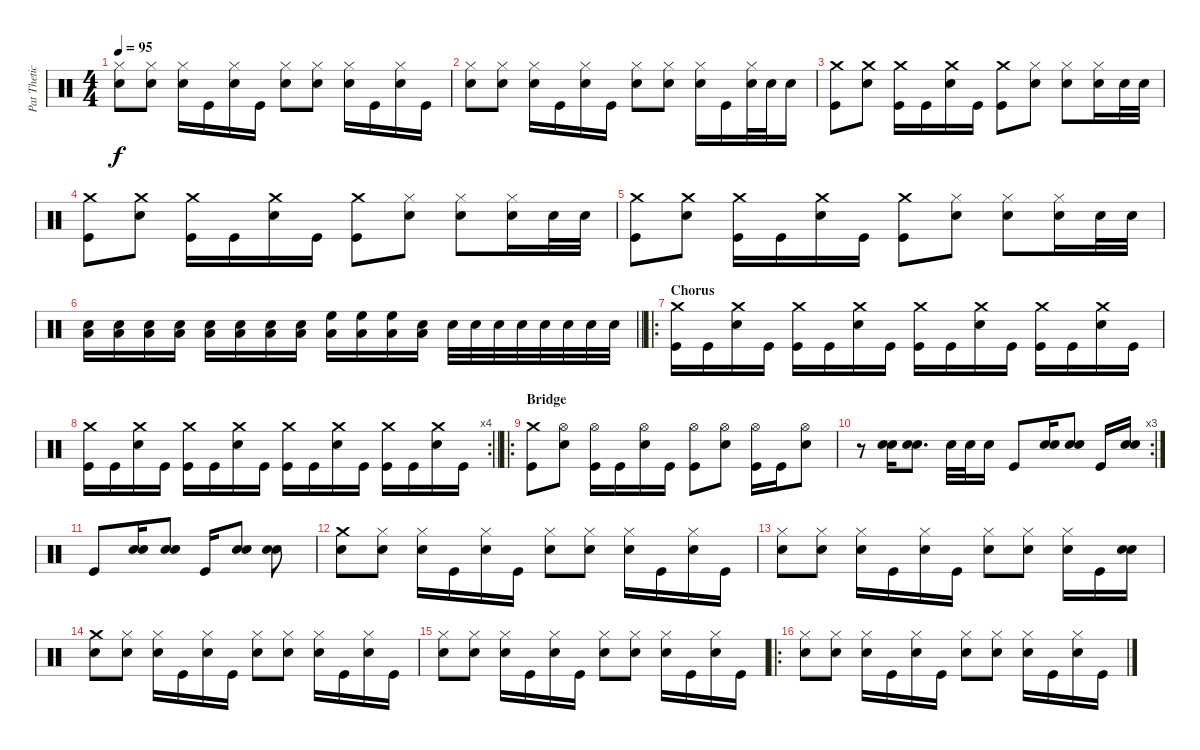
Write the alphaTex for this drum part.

\track ("Pat Thetic" "Pat Thetic") {instrument percussion}
\staff {score}
\articulation defaults
\ts (4 4)
\tempo 95
\clef neutral
\ks c
("Hi-Hat (closed)" "Electric Snare (hit)").8{dy f} ("Hi-Hat (closed)" "Electric Snare (hit)").8 ("Hi-Hat (closed)" "Electric Snare (hit)").16 "Kick (hit)".16 ("Hi-Hat (closed)" "Electric Snare (hit)").16 "Kick (hit)".16 ("Hi-Hat (closed)" "Electric Snare (hit)").8 ("Hi-Hat (closed)" "Electric Snare (hit)").8 ("Hi-Hat (closed)" "Electric Snare (hit)").16 "Kick (hit)".16 ("Hi-Hat (closed)" "Electric Snare (hit)").16 "Kick (hit)".16 |
("Hi-Hat (closed)" "Electric Snare (hit)").8 ("Hi-Hat (closed)" "Electric Snare (hit)").8 ("Hi-Hat (closed)" "Electric Snare (hit)").16 "Kick (hit)".16 ("Hi-Hat (closed)" "Electric Snare (hit)").16 "Kick (hit)".16 ("Hi-Hat (closed)" "Electric Snare (hit)").8 ("Hi-Hat (closed)" "Electric Snare (hit)").8 ("Hi-Hat (closed)" "Electric Snare (hit)").16 "Kick (hit)".16 ("Hi-Hat (closed)" "Electric Snare (hit)").32 "Electric Snare (hit)".32 "Electric Snare (hit)".16 |
("Crash medium (hit)" "Kick (hit)").8 ("Crash medium (hit)" "Electric Snare (hit)").8 ("Crash medium (hit)" "Kick (hit)").16 "Kick (hit)".16 ("Crash medium (hit)" "Electric Snare (hit)").16 "Kick (hit)".16 ("Crash medium (hit)" "Kick (hit)").8 ("Hi-Hat (closed)" "Electric Snare (hit)").8 ("Hi-Hat (closed)" "Electric Snare (hit)").8 ("Hi-Hat (closed)" "Electric Snare (hit)").16 "Electric Snare (hit)".32 "Electric Snare (hit)".32 |
("Crash medium (hit)" "Kick (hit)").8 ("Crash medium (hit)" "Electric Snare (hit)").8 ("Crash medium (hit)" "Kick (hit)").16 "Kick (hit)".16 ("Crash medium (hit)" "Electric Snare (hit)").16 "Kick (hit)".16 ("Crash medium (hit)" "Kick (hit)").8 ("Hi-Hat (closed)" "Electric Snare (hit)").8 ("Hi-Hat (closed)" "Electric Snare (hit)").8 ("Hi-Hat (closed)" "Electric Snare (hit)").16 "Electric Snare (hit)".32 "Electric Snare (hit)".32 |
("Crash medium (hit)" "Kick (hit)").8 ("Crash medium (hit)" "Electric Snare (hit)").8 ("Crash medium (hit)" "Kick (hit)").16 "Kick (hit)".16 ("Crash medium (hit)" "Electric Snare (hit)").16 "Kick (hit)".16 ("Crash medium (hit)" "Kick (hit)").8 ("Hi-Hat (closed)" "Electric Snare (hit)").8 ("Hi-Hat (closed)" "Electric Snare (hit)").8 ("Hi-Hat (closed)" "Electric Snare (hit)").16 "Electric Snare (hit)".32 "Electric Snare (hit)".32 |
\barLineRight lightlight
("Low Floor Tom (hit)" "Electric Snare (hit)").16 ("Low Floor Tom (hit)" "Electric Snare (hit)").16 ("Low Floor Tom (hit)" "Electric Snare (hit)").16 ("Low Floor Tom (hit)" "Electric Snare (hit)").16 ("Low Floor Tom (hit)" "Electric Snare (hit)").16 ("Low Floor Tom (hit)" "Electric Snare (hit)").16 ("Low Floor Tom (hit)" "Electric Snare (hit)").16 ("Low Floor Tom (hit)" "Electric Snare (hit)").16 ("Low Floor Tom (hit)" "High Floor Tom (hit)").16 ("Low Floor Tom (hit)" "High Floor Tom (hit)").16 ("Low Floor Tom (hit)" "High Floor Tom (hit)").16 ("Low Floor Tom (hit)" "Electric Snare (hit)").16 "Electric Snare (hit)".32 "Electric Snare (hit)".32 "Electric Snare (hit)".32 "Electric Snare (hit)".32 "Electric Snare (hit)".32 "Electric Snare (hit)".32 "Electric Snare (hit)".32 "Electric Snare (hit)".32 |
\ro
\section ("" "Chorus")
("Crash medium (hit)" "Kick (hit)").16 "Kick (hit)".16 ("Crash medium (hit)" "Electric Snare (hit)").16 "Kick (hit)".16 ("Crash medium (hit)" "Kick (hit)").16 "Kick (hit)".16 ("Crash medium (hit)" "Electric Snare (hit)").16 "Kick (hit)".16 ("Crash medium (hit)" "Kick (hit)").16 "Kick (hit)".16 ("Crash medium (hit)" "Electric Snare (hit)").16 "Kick (hit)".16 ("Crash medium (hit)" "Kick (hit)").16 "Kick (hit)".16 ("Crash medium (hit)" "Electric Snare (hit)").16 "Kick (hit)".16 |
\rc 4
\barLineRight lightlight
("Crash medium (hit)" "Kick (hit)").16 "Kick (hit)".16 ("Crash medium (hit)" "Electric Snare (hit)").16 "Kick (hit)".16 ("Crash medium (hit)" "Kick (hit)").16 "Kick (hit)".16 ("Crash medium (hit)" "Electric Snare (hit)").16 "Kick (hit)".16 ("Crash medium (hit)" "Kick (hit)").16 "Kick (hit)".16 ("Crash medium (hit)" "Electric Snare (hit)").16 "Kick (hit)".16 ("Crash medium (hit)" "Kick (hit)").16 "Kick (hit)".16 ("Crash medium (hit)" "Electric Snare (hit)").16 "Kick (hit)".16 |
\ro
\section ("" "Bridge")
("Crash medium (hit)" "Kick (hit)").8 ("Hi-Hat (open)" "Electric Snare (hit)").8 ("Hi-Hat (open)" "Kick (hit)").16 "Kick (hit)".16 ("Hi-Hat (open)" "Electric Snare (hit)").16 "Kick (hit)".16 ("Hi-Hat (open)" "Kick (hit)").8 ("Hi-Hat (open)" "Electric Snare (hit)").8 ("Hi-Hat (open)" "Kick (hit)").16 "Kick (hit)".16 ("Hi-Hat (open)" "Electric Snare (hit)").8 |
\rc 3
r.8 ("Electric Snare (hit)" "Electric Snare (hit)").16 ("Electric Snare (hit)" "Electric Snare (hit)").8{d} "Electric Snare (hit)".32 "Electric Snare (hit)".32 "Electric Snare (hit)".16 "Kick (hit)".8 ("Electric Snare (hit)" "Electric Snare (hit)").16 ("Electric Snare (hit)" "Electric Snare (hit)").8 "Kick (hit)".16 ("Electric Snare (hit)" "Electric Snare (hit)").16 |
"Kick (hit)".8 ("Electric Snare (hit)" "Electric Snare (hit)").16 ("Electric Snare (hit)" "Electric Snare (hit)").8 "Kick (hit)".16 ("Electric Snare (hit)" "Electric Snare (hit)").8 ("Electric Snare (hit)" "Electric Snare (hit)").8 |
("Crash medium (hit)" "Electric Snare (hit)").8 ("Hi-Hat (closed)" "Electric Snare (hit)").8 ("Hi-Hat (closed)" "Electric Snare (hit)").16 "Kick (hit)".16 ("Hi-Hat (closed)" "Electric Snare (hit)").16 "Kick (hit)".16 ("Hi-Hat (closed)" "Electric Snare (hit)").8 ("Hi-Hat (closed)" "Electric Snare (hit)").8 ("Hi-Hat (closed)" "Electric Snare (hit)").16 "Kick (hit)".16 ("Hi-Hat (closed)" "Electric Snare (hit)").16 "Kick (hit)".16 |
("Hi-Hat (closed)" "Electric Snare (hit)").8 ("Hi-Hat (closed)" "Electric Snare (hit)").8 ("Hi-Hat (closed)" "Electric Snare (hit)").16 "Kick (hit)".16 ("Hi-Hat (closed)" "Electric Snare (hit)").16 "Kick (hit)".16 ("Hi-Hat (closed)" "Electric Snare (hit)").8 ("Hi-Hat (closed)" "Electric Snare (hit)").8 ("Hi-Hat (closed)" "Electric Snare (hit)").16 "Kick (hit)".16 ("Electric Snare (hit)" "Electric Snare (hit)").16 |
("Crash medium (hit)" "Electric Snare (hit)").8 ("Hi-Hat (closed)" "Electric Snare (hit)").8 ("Hi-Hat (closed)" "Electric Snare (hit)").16 "Kick (hit)".16 ("Hi-Hat (closed)" "Electric Snare (hit)").16 "Kick (hit)".16 ("Hi-Hat (closed)" "Electric Snare (hit)").8 ("Hi-Hat (closed)" "Electric Snare (hit)").8 ("Hi-Hat (closed)" "Electric Snare (hit)").16 "Kick (hit)".16 ("Hi-Hat (closed)" "Electric Snare (hit)").16 "Kick (hit)".16 |
("Hi-Hat (closed)" "Electric Snare (hit)").8 ("Hi-Hat (closed)" "Electric Snare (hit)").8 ("Hi-Hat (closed)" "Electric Snare (hit)").16 "Kick (hit)".16 ("Hi-Hat (closed)" "Electric Snare (hit)").16 "Kick (hit)".16 ("Hi-Hat (closed)" "Electric Snare (hit)").8 ("Hi-Hat (closed)" "Electric Snare (hit)").8 ("Hi-Hat (closed)" "Electric Snare (hit)").16 "Kick (hit)".16 ("Hi-Hat (closed)" "Electric Snare (hit)").16 "Kick (hit)".16 |
\ro
("Hi-Hat (closed)" "Electric Snare (hit)").8 ("Hi-Hat (closed)" "Electric Snare (hit)").8 ("Hi-Hat (closed)" "Electric Snare (hit)").16 "Kick (hit)".16 ("Hi-Hat (closed)" "Electric Snare (hit)").16 "Kick (hit)".16 ("Hi-Hat (closed)" "Electric Snare (hit)").8 ("Hi-Hat (closed)" "Electric Snare (hit)").8 ("Hi-Hat (closed)" "Electric Snare (hit)").16 "Kick (hit)".16 ("Hi-Hat (closed)" "Electric Snare (hit)").16 "Kick (hit)".16
